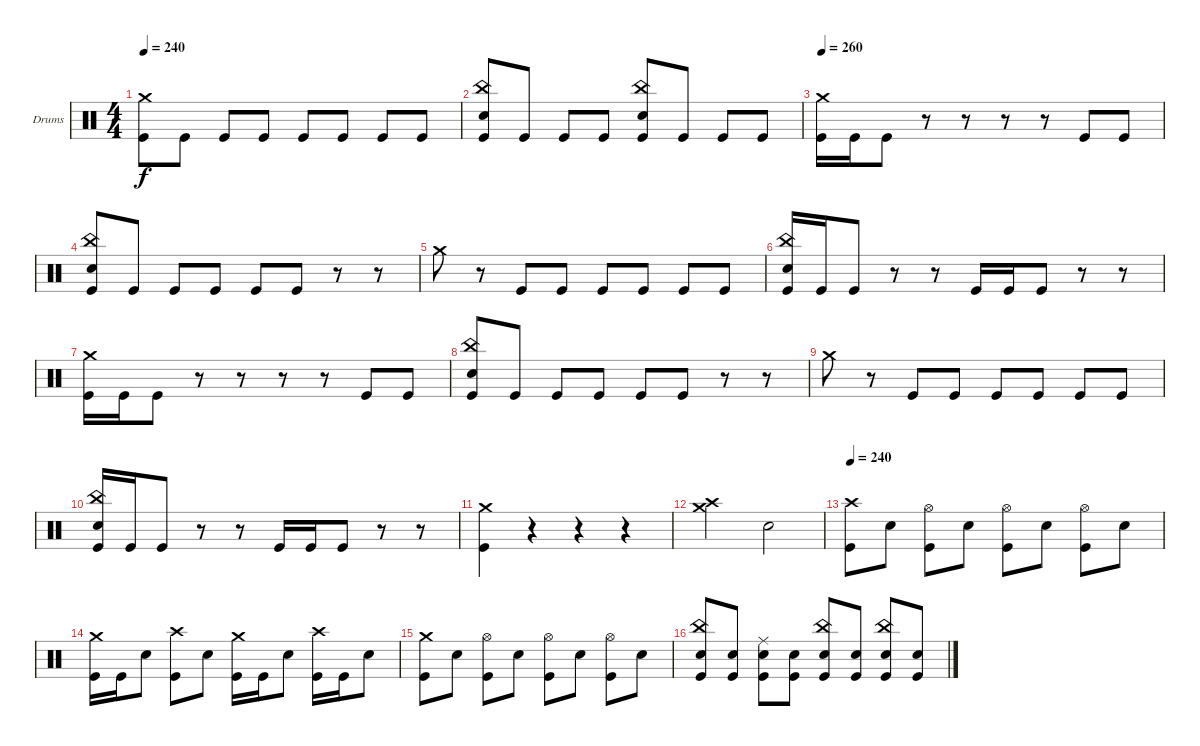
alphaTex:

\bracketExtendMode groupsimilarinstruments
\firstSystemTrackNameOrientation horizontal
\otherSystemsTrackNameOrientation horizontal
\track ("Drumkit" "Drums") {instrument percussion}
\staff {score}
\articulation defaults
\ts (4 4)
\tempo 240
\clef neutral
\ks c
("Crash medium (hit)" "Kick (hit)").8{dy f} "Kick (hit)".8 "Kick (hit)".8 "Kick (hit)".8 "Kick (hit)".8 "Kick (hit)".8 "Kick (hit)".8 "Kick (hit)".8 |
("China (hit)" "Snare (hit) 2" "Kick (hit)").8 "Kick (hit)".8 "Kick (hit)".8 "Kick (hit)".8 ("China (hit)" "Snare (hit) 2" "Kick (hit)").8 "Kick (hit)".8 "Kick (hit)".8 "Kick (hit)".8 |
\tempo 260
("Crash medium (hit)" "Kick (hit)").16 "Kick (hit)".16 "Kick (hit)".8 r.8 r.8 r.8 r.8 "Kick (hit)".8 "Kick (hit)".8 |
("China (hit)" "Snare (hit) 2" "Kick (hit)").8 "Kick (hit)".8 "Kick (hit)".8 "Kick (hit)".8 "Kick (hit)".8 "Kick (hit)".8 r.8 r.8 |
"Crash medium (hit)".8 r.8 "Kick (hit)".8 "Kick (hit)".8 "Kick (hit)".8 "Kick (hit)".8 "Kick (hit)".8 "Kick (hit)".8 |
("China (hit)" "Snare (hit) 2" "Kick (hit)").16 "Kick (hit)".16 "Kick (hit)".8 r.8 r.8 "Kick (hit)".16 "Kick (hit)".16 "Kick (hit)".8 r.8 r.8 |
("Crash medium (hit)" "Kick (hit)").16 "Kick (hit)".16 "Kick (hit)".8 r.8 r.8 r.8 r.8 "Kick (hit)".8 "Kick (hit)".8 |
("China (hit)" "Snare (hit) 2" "Kick (hit)").8 "Kick (hit)".8 "Kick (hit)".8 "Kick (hit)".8 "Kick (hit)".8 "Kick (hit)".8 r.8 r.8 |
"Crash medium (hit)".8 r.8 "Kick (hit)".8 "Kick (hit)".8 "Kick (hit)".8 "Kick (hit)".8 "Kick (hit)".8 "Kick (hit)".8 |
("China (hit)" "Snare (hit) 2" "Kick (hit)").16 "Kick (hit)".16 "Kick (hit)".8 r.8 r.8 "Kick (hit)".16 "Kick (hit)".16 "Kick (hit)".8 r.8 r.8 |
("Crash medium (hit)" "Kick (hit)").4 r.4 r.4 r.4 |
("Crash medium (hit)" "Crash high (hit)").2 "Snare (hit) 2".2 |
\tempo 240
("Crash high (hit)" "Kick (hit)").8 "Snare (hit) 2".8 ("Hi-Hat (open)" "Kick (hit)").8 "Snare (hit) 2".8 ("Hi-Hat (open)" "Kick (hit)").8 "Snare (hit) 2".8 ("Hi-Hat (open)" "Kick (hit)").8 "Snare (hit) 2".8 |
("Crash medium (hit)" "Kick (hit)").16 "Kick (hit)".16 "Snare (hit) 2".8 ("Crash high (hit)" "Kick (hit)").8 "Snare (hit) 2".8 ("Crash medium (hit)" "Kick (hit)").16 "Kick (hit)".16 "Snare (hit) 2".8 ("Crash high (hit)" "Kick (hit)").16 "Kick (hit)".16 "Snare (hit) 2".8 |
("Crash medium (hit)" "Kick (hit)").8 "Snare (hit) 2".8 ("Hi-Hat (open)" "Kick (hit)").8 "Snare (hit) 2".8 ("Hi-Hat (open)" "Kick (hit)").8 "Snare (hit) 2".8 ("Hi-Hat (open)" "Kick (hit)").8 "Snare (hit) 2".8 |
("China (hit)" "Snare (hit) 2" "Kick (hit)").8 ("Snare (hit) 2" "Kick (hit)").8 ("Ride (middle)" "Snare (hit) 2" "Kick (hit)").8 ("Snare (hit) 2" "Kick (hit)").8 ("China (hit)" "Snare (hit) 2" "Kick (hit)").8 ("Snare (hit) 2" "Kick (hit)").8 ("China (hit)" "Snare (hit) 2" "Kick (hit)").8 ("Snare (hit) 2" "Kick (hit)").8
